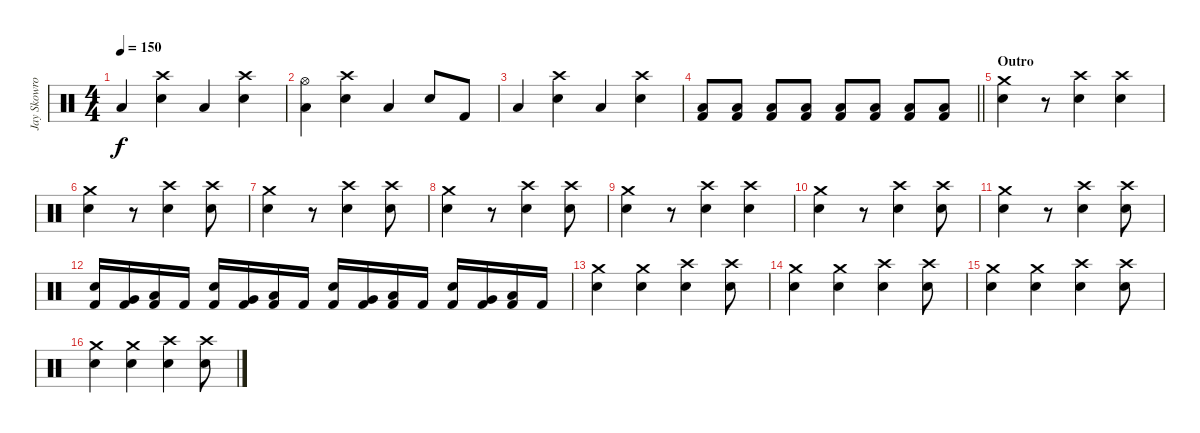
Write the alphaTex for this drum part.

\track ("Jay Skowronek (Drums)" "Jay Skowro") {instrument percussion}
\staff {score}
\articulation defaults
\ts (4 4)
\tempo 150
\clef neutral
\ks c "Low Floor Tom (hit)".4{dy f}
("Electric Snare (hit)" "Crash high (hit)").4 "Low Floor Tom (hit)".4 ("Electric Snare (hit)" "Crash high (hit)").4 |
("Low Floor Tom (hit)" "Hi-Hat (open)").4 ("Electric Snare (hit)" "Crash high (hit)").4 "Low Floor Tom (hit)".4 "Electric Snare (hit)".8 "Kick (hit) 2".8 |
"Low Floor Tom (hit)".4 ("Electric Snare (hit)" "Crash high (hit)").4 "Low Floor Tom (hit)".4 ("Electric Snare (hit)" "Crash high (hit)").4 |
\barLineRight lightlight
("Kick (hit) 2" "Low Tom (hit)").8 ("Kick (hit) 2" "Low Tom (hit)").8 ("Kick (hit) 2" "Low Tom (hit)").8 ("Kick (hit) 2" "Low Tom (hit)").8 ("Kick (hit) 2" "Low Tom (hit)").8 ("Kick (hit) 2" "Low Tom (hit)").8 ("Kick (hit) 2" "Low Tom (hit)").8 ("Kick (hit) 2" "Low Tom (hit)").8 |
\section ("" "Outro")
("Electric Snare (hit)" "Crash medium (hit)").4 r.8 ("Electric Snare (hit)" "Crash high (hit)").4 ("Electric Snare (hit)" "Crash high (hit)").4 |
("Electric Snare (hit)" "Crash medium (hit)").4 r.8 ("Electric Snare (hit)" "Crash high (hit)").4 ("Electric Snare (hit)" "Crash high (hit)").8 |
("Electric Snare (hit)" "Crash medium (hit)").4 r.8 ("Electric Snare (hit)" "Crash high (hit)").4 ("Electric Snare (hit)" "Crash high (hit)").8 |
("Electric Snare (hit)" "Crash medium (hit)").4 r.8 ("Electric Snare (hit)" "Crash high (hit)").4 ("Electric Snare (hit)" "Crash high (hit)").8 |
("Electric Snare (hit)" "Crash medium (hit)").4 r.8 ("Electric Snare (hit)" "Crash high (hit)").4 ("Electric Snare (hit)" "Crash high (hit)").4 |
("Electric Snare (hit)" "Crash medium (hit)").4 r.8 ("Electric Snare (hit)" "Crash high (hit)").4 ("Electric Snare (hit)" "Crash high (hit)").8 |
("Electric Snare (hit)" "Crash medium (hit)").4 r.8 ("Electric Snare (hit)" "Crash high (hit)").4 ("Electric Snare (hit)" "Crash high (hit)").8 |
("Electric Snare (hit)" "Kick (hit) 2").16 ("Very Low Tom (hit)" "Kick (hit) 2").16 ("Low Floor Tom (hit)" "Kick (hit) 2").16 "Kick (hit) 2".16 ("Electric Snare (hit)" "Kick (hit) 2").16 ("Very Low Tom (hit)" "Kick (hit) 2").16 ("Low Floor Tom (hit)" "Kick (hit) 2").16 "Kick (hit) 2".16 ("Electric Snare (hit)" "Kick (hit) 2").16 ("Very Low Tom (hit)" "Kick (hit) 2").16 ("Low Floor Tom (hit)" "Kick (hit) 2").16 "Kick (hit) 2".16 ("Electric Snare (hit)" "Kick (hit) 2").16 ("Very Low Tom (hit)" "Kick (hit) 2").16 ("Low Floor Tom (hit)" "Kick (hit) 2").16 "Kick (hit) 2".16 |
("Electric Snare (hit)" "Crash medium (hit)").4 ("Electric Snare (hit)" "Crash medium (hit)").4 ("Electric Snare (hit)" "Crash high (hit)").4 ("Electric Snare (hit)" "Crash high (hit)").8 |
("Electric Snare (hit)" "Crash medium (hit)").4 ("Electric Snare (hit)" "Crash medium (hit)").4 ("Electric Snare (hit)" "Crash high (hit)").4 ("Electric Snare (hit)" "Crash high (hit)").8 |
("Electric Snare (hit)" "Crash medium (hit)").4 ("Electric Snare (hit)" "Crash medium (hit)").4 ("Electric Snare (hit)" "Crash high (hit)").4 ("Electric Snare (hit)" "Crash high (hit)").8 |
("Electric Snare (hit)" "Crash medium (hit)").4 ("Electric Snare (hit)" "Crash medium (hit)").4 ("Electric Snare (hit)" "Crash high (hit)").4 ("Electric Snare (hit)" "Crash high (hit)").8
